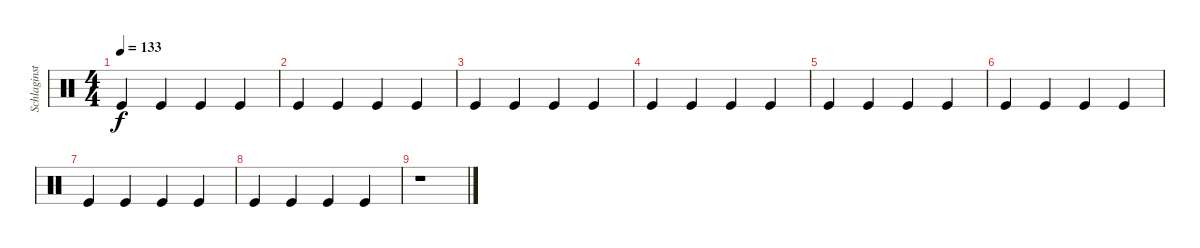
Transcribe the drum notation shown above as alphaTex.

\track ("Schlaginstrumente - Auswahl" "Schlaginst") {instrument percussion}
\staff {score}
\articulation defaults
\ts (4 4)
\tempo 133
\clef neutral
\ks c "Kick (hit)".4{dy f} "Kick (hit)".4 "Kick (hit)".4 "Kick (hit)".4
|
"Kick (hit)".4 "Kick (hit)".4 "Kick (hit)".4 "Kick (hit)".4 |
"Kick (hit)".4 "Kick (hit)".4 "Kick (hit)".4 "Kick (hit)".4 |
"Kick (hit)".4 "Kick (hit)".4 "Kick (hit)".4 "Kick (hit)".4 |
"Kick (hit)".4 "Kick (hit)".4 "Kick (hit)".4 "Kick (hit)".4 |
"Kick (hit)".4 "Kick (hit)".4 "Kick (hit)".4 "Kick (hit)".4 |
"Kick (hit)".4 "Kick (hit)".4 "Kick (hit)".4 "Kick (hit)".4 |
"Kick (hit)".4 "Kick (hit)".4 "Kick (hit)".4 "Kick (hit)".4 |
r.1
